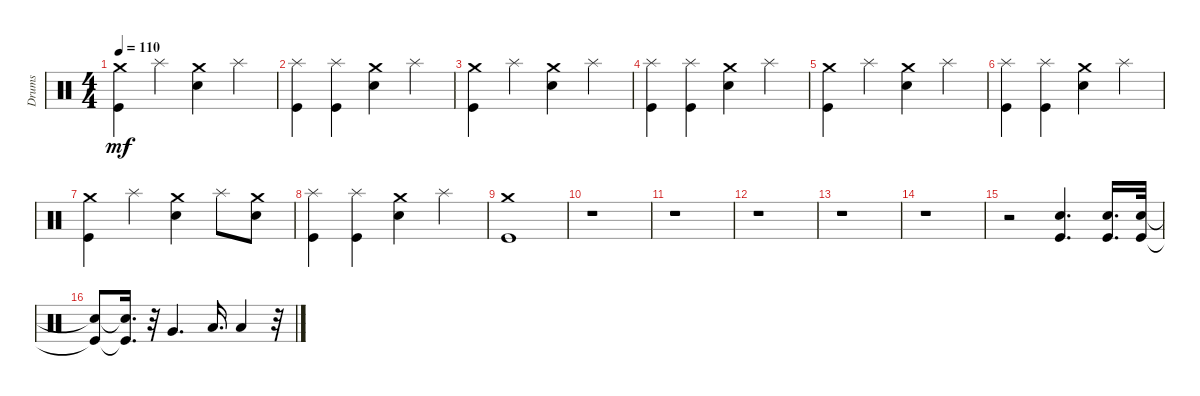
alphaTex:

\track ("Drums" "Drums") {instrument percussion}
\staff {score}
\articulation defaults
\ts (4 4)
\tempo 110
\clef neutral
\ks c
("Crash medium (hit)" "Kick (hit)").4{dy mf} "Splash (hit)".4 ("Crash medium (hit)" "Snare (hit) 2").4 "Splash (hit)".4 |
("Splash (hit)" "Kick (hit)").4 ("Splash (hit)" "Kick (hit)").4 ("Crash medium (hit)" "Snare (hit) 2").4 "Splash (hit)".4 |
("Crash medium (hit)" "Kick (hit)").4 "Splash (hit)".4 ("Crash medium (hit)" "Snare (hit) 2").4 "Splash (hit)".4 |
("Splash (hit)" "Kick (hit)").4 ("Splash (hit)" "Kick (hit)").4 ("Crash medium (hit)" "Snare (hit) 2").4 "Splash (hit)".4 |
("Crash medium (hit)" "Kick (hit)").4 "Splash (hit)".4 ("Crash medium (hit)" "Snare (hit) 2").4 "Splash (hit)".4 |
("Splash (hit)" "Kick (hit)").4 ("Splash (hit)" "Kick (hit)").4 ("Crash medium (hit)" "Snare (hit) 2").4 "Splash (hit)".4 |
("Crash medium (hit)" "Kick (hit)").4 "Splash (hit)".4 ("Crash medium (hit)" "Snare (hit) 2").4 "Splash (hit)".8 ("Crash medium (hit)" "Snare (hit) 2").8 |
("Splash (hit)" "Kick (hit)").4 ("Splash (hit)" "Kick (hit)").4 ("Crash medium (hit)" "Snare (hit) 2").4 "Splash (hit)".4 |
("Crash medium (hit)" "Kick (hit)").1 |
r.1 |
r.1 |
r.1 |
r.1 |
r.1 |
r.2 ("Snare (hit) 2" "Kick (hit)").4{d} ("Snare (hit) 2" "Kick (hit)").16{d} ("Snare (hit) 2" "Kick (hit)").32 |
("Snare (hit) 2"{t} "Kick (hit)"{t}).8 ("Snare (hit) 2"{t} "Kick (hit)"{t}).16{d} r.32 "Very Low Tom (hit)".4{d} "Low Floor Tom (hit)".16{d} "Low Floor Tom (hit)".4 r.32
